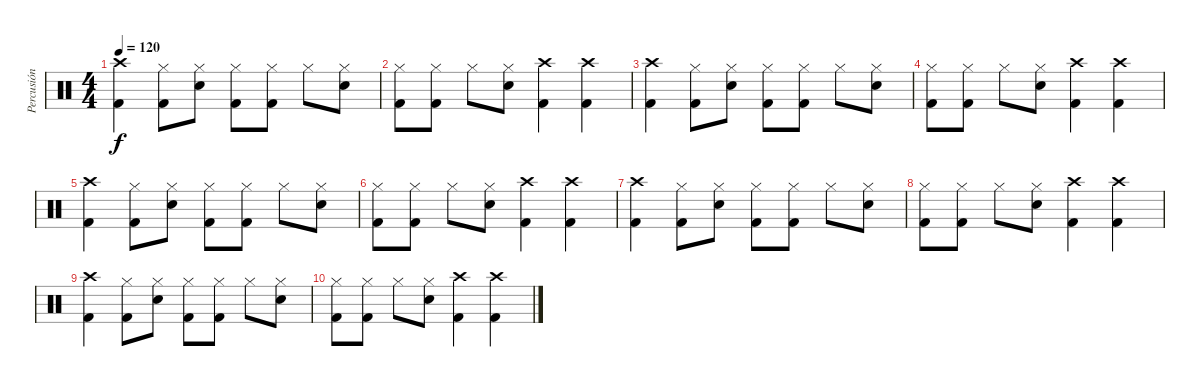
\track ("Percusión" "Percusión") {instrument percussion}
\staff {score}
\articulation defaults
\ts (4 4)
\tempo 120
\clef neutral
\ks c
("Crash high (hit)" "Kick (hit) 2").4{dy f} ("Hi-Hat (closed)" "Kick (hit) 2").8 ("Hi-Hat (closed)" "Snare (hit) 2").8 ("Hi-Hat (closed)" "Kick (hit) 2").8 ("Hi-Hat (closed)" "Kick (hit) 2").8 "Hi-Hat (closed)".8 ("Hi-Hat (closed)" "Snare (hit) 2").8 |
("Hi-Hat (closed)" "Kick (hit) 2").8 ("Hi-Hat (closed)" "Kick (hit) 2").8 "Hi-Hat (closed)".8 ("Hi-Hat (closed)" "Snare (hit) 2").8 ("Crash high (hit)" "Kick (hit) 2").4 ("Crash high (hit)" "Kick (hit) 2").4 |
("Crash high (hit)" "Kick (hit) 2").4 ("Hi-Hat (closed)" "Kick (hit) 2").8 ("Hi-Hat (closed)" "Snare (hit) 2").8 ("Hi-Hat (closed)" "Kick (hit) 2").8 ("Hi-Hat (closed)" "Kick (hit) 2").8 "Hi-Hat (closed)".8 ("Hi-Hat (closed)" "Snare (hit) 2").8 |
("Hi-Hat (closed)" "Kick (hit) 2").8 ("Hi-Hat (closed)" "Kick (hit) 2").8 "Hi-Hat (closed)".8 ("Hi-Hat (closed)" "Snare (hit) 2").8 ("Crash high (hit)" "Kick (hit) 2").4 ("Crash high (hit)" "Kick (hit) 2").4 |
("Crash high (hit)" "Kick (hit) 2").4 ("Hi-Hat (closed)" "Kick (hit) 2").8 ("Hi-Hat (closed)" "Snare (hit) 2").8 ("Hi-Hat (closed)" "Kick (hit) 2").8 ("Hi-Hat (closed)" "Kick (hit) 2").8 "Hi-Hat (closed)".8 ("Hi-Hat (closed)" "Snare (hit) 2").8 |
("Hi-Hat (closed)" "Kick (hit) 2").8 ("Hi-Hat (closed)" "Kick (hit) 2").8 "Hi-Hat (closed)".8 ("Hi-Hat (closed)" "Snare (hit) 2").8 ("Crash high (hit)" "Kick (hit) 2").4 ("Crash high (hit)" "Kick (hit) 2").4 |
("Crash high (hit)" "Kick (hit) 2").4 ("Hi-Hat (closed)" "Kick (hit) 2").8 ("Hi-Hat (closed)" "Snare (hit) 2").8 ("Hi-Hat (closed)" "Kick (hit) 2").8 ("Hi-Hat (closed)" "Kick (hit) 2").8 "Hi-Hat (closed)".8 ("Hi-Hat (closed)" "Snare (hit) 2").8 |
("Hi-Hat (closed)" "Kick (hit) 2").8 ("Hi-Hat (closed)" "Kick (hit) 2").8 "Hi-Hat (closed)".8 ("Hi-Hat (closed)" "Snare (hit) 2").8 ("Crash high (hit)" "Kick (hit) 2").4 ("Crash high (hit)" "Kick (hit) 2").4 |
("Crash high (hit)" "Kick (hit) 2").4 ("Hi-Hat (closed)" "Kick (hit) 2").8 ("Hi-Hat (closed)" "Snare (hit) 2").8 ("Hi-Hat (closed)" "Kick (hit) 2").8 ("Hi-Hat (closed)" "Kick (hit) 2").8 "Hi-Hat (closed)".8 ("Hi-Hat (closed)" "Snare (hit) 2").8 |
("Hi-Hat (closed)" "Kick (hit) 2").8 ("Hi-Hat (closed)" "Kick (hit) 2").8 "Hi-Hat (closed)".8 ("Hi-Hat (closed)" "Snare (hit) 2").8 ("Crash high (hit)" "Kick (hit) 2").4 ("Crash high (hit)" "Kick (hit) 2").4
